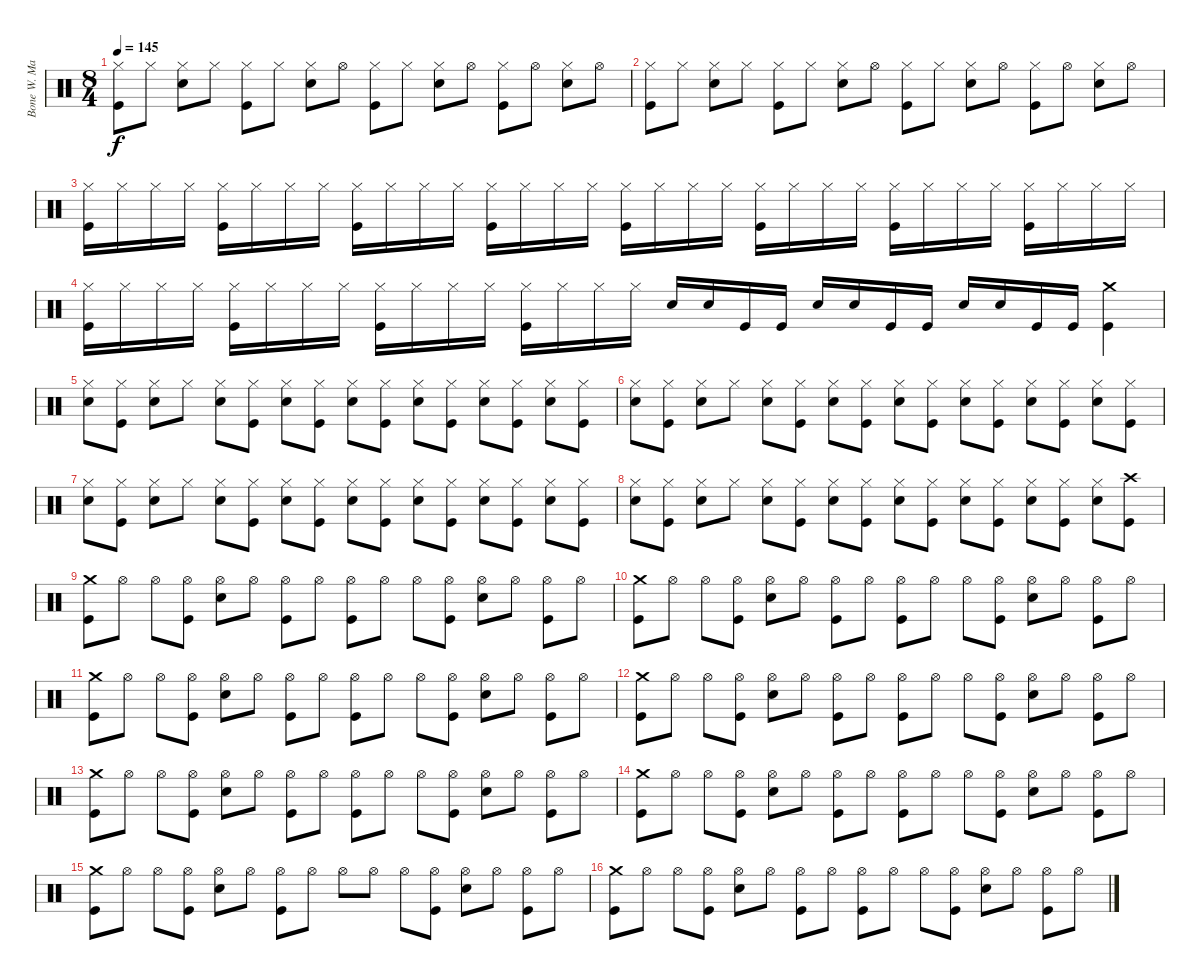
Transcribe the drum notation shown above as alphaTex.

\track ("Bone W. Machine" "Bone W. Ma") {instrument percussion}
\staff {score}
\articulation defaults
\ts (8 4)
\tempo 145
\clef neutral
\ks c
("Kick (hit)" "Hi-Hat (closed)").8{dy f} "Hi-Hat (closed)".8 ("Hi-Hat (closed)" "Electric Snare (hit)").8 "Hi-Hat (closed)".8 ("Kick (hit)" "Hi-Hat (closed)").8 "Hi-Hat (closed)".8 ("Hi-Hat (closed)" "Electric Snare (hit)").8 "Hi-Hat (open)".8 ("Kick (hit)" "Hi-Hat (closed)").8 "Hi-Hat (closed)".8 ("Hi-Hat (closed)" "Electric Snare (hit)").8 "Hi-Hat (open)".8 ("Kick (hit)" "Hi-Hat (closed)").8 "Hi-Hat (open)".8 ("Hi-Hat (closed)" "Electric Snare (hit)").8 "Hi-Hat (open)".8 |
("Kick (hit)" "Hi-Hat (closed)").8 "Hi-Hat (closed)".8 ("Hi-Hat (closed)" "Electric Snare (hit)").8 "Hi-Hat (closed)".8 ("Kick (hit)" "Hi-Hat (closed)").8 "Hi-Hat (closed)".8 ("Hi-Hat (closed)" "Electric Snare (hit)").8 "Hi-Hat (open)".8 ("Kick (hit)" "Hi-Hat (closed)").8 "Hi-Hat (closed)".8 ("Hi-Hat (closed)" "Electric Snare (hit)").8 "Hi-Hat (open)".8 ("Kick (hit)" "Hi-Hat (closed)").8 "Hi-Hat (open)".8 ("Hi-Hat (closed)" "Electric Snare (hit)").8 "Hi-Hat (open)".8 |
("Kick (hit)" "Hi-Hat (closed)").16 "Hi-Hat (closed)".16 "Hi-Hat (closed)".16 "Hi-Hat (closed)".16 ("Kick (hit)" "Hi-Hat (closed)").16 "Hi-Hat (closed)".16 "Hi-Hat (closed)".16 "Hi-Hat (closed)".16 ("Kick (hit)" "Hi-Hat (closed)").16 "Hi-Hat (closed)".16 "Hi-Hat (closed)".16 "Hi-Hat (closed)".16 ("Kick (hit)" "Hi-Hat (closed)").16 "Hi-Hat (closed)".16 "Hi-Hat (closed)".16 "Hi-Hat (closed)".16 ("Kick (hit)" "Hi-Hat (closed)").16 "Hi-Hat (closed)".16 "Hi-Hat (closed)".16 "Hi-Hat (closed)".16 ("Kick (hit)" "Hi-Hat (closed)").16 "Hi-Hat (closed)".16 "Hi-Hat (closed)".16 "Hi-Hat (closed)".16 ("Kick (hit)" "Hi-Hat (closed)").16 "Hi-Hat (closed)".16 "Hi-Hat (closed)".16 "Hi-Hat (closed)".16 ("Kick (hit)" "Hi-Hat (closed)").16 "Hi-Hat (closed)".16 "Hi-Hat (closed)".16 "Hi-Hat (closed)".16 |
("Kick (hit)" "Hi-Hat (closed)").16 "Hi-Hat (closed)".16 "Hi-Hat (closed)".16 "Hi-Hat (closed)".16 ("Kick (hit)" "Hi-Hat (closed)").16 "Hi-Hat (closed)".16 "Hi-Hat (closed)".16 "Hi-Hat (closed)".16 ("Kick (hit)" "Hi-Hat (closed)").16 "Hi-Hat (closed)".16 "Hi-Hat (closed)".16 "Hi-Hat (closed)".16 ("Kick (hit)" "Hi-Hat (closed)").16 "Hi-Hat (closed)".16 "Hi-Hat (closed)".16 "Hi-Hat (closed)".16 "Electric Snare (hit)".16 "Electric Snare (hit)".16 "Kick (hit)".16 "Kick (hit)".16 "Electric Snare (hit)".16 "Electric Snare (hit)".16 "Kick (hit)".16 "Kick (hit)".16 "Electric Snare (hit)".16 "Electric Snare (hit)".16 "Kick (hit)".16 "Kick (hit)".16 ("Kick (hit)" "Crash medium (hit)").4 |
("Hi-Hat (closed)" "Electric Snare (hit)").8 ("Kick (hit)" "Hi-Hat (closed)").8 ("Hi-Hat (closed)" "Electric Snare (hit)").8 "Hi-Hat (closed)".8 ("Hi-Hat (closed)" "Electric Snare (hit)").8 ("Kick (hit)" "Hi-Hat (closed)").8 ("Hi-Hat (closed)" "Electric Snare (hit)").8 ("Kick (hit)" "Hi-Hat (closed)").8 ("Hi-Hat (closed)" "Electric Snare (hit)").8 ("Kick (hit)" "Hi-Hat (closed)").8 ("Hi-Hat (closed)" "Electric Snare (hit)").8 ("Kick (hit)" "Hi-Hat (closed)").8 ("Hi-Hat (closed)" "Electric Snare (hit)").8 ("Kick (hit)" "Hi-Hat (closed)").8 ("Hi-Hat (closed)" "Electric Snare (hit)").8 ("Kick (hit)" "Hi-Hat (closed)").8 |
("Hi-Hat (closed)" "Electric Snare (hit)").8 ("Kick (hit)" "Hi-Hat (closed)").8 ("Hi-Hat (closed)" "Electric Snare (hit)").8 "Hi-Hat (closed)".8 ("Hi-Hat (closed)" "Electric Snare (hit)").8 ("Kick (hit)" "Hi-Hat (closed)").8 ("Hi-Hat (closed)" "Electric Snare (hit)").8 ("Kick (hit)" "Hi-Hat (closed)").8 ("Hi-Hat (closed)" "Electric Snare (hit)").8 ("Kick (hit)" "Hi-Hat (closed)").8 ("Hi-Hat (closed)" "Electric Snare (hit)").8 ("Kick (hit)" "Hi-Hat (closed)").8 ("Hi-Hat (closed)" "Electric Snare (hit)").8 ("Kick (hit)" "Hi-Hat (closed)").8 ("Hi-Hat (closed)" "Electric Snare (hit)").8 ("Kick (hit)" "Hi-Hat (closed)").8 |
("Hi-Hat (closed)" "Electric Snare (hit)").8 ("Kick (hit)" "Hi-Hat (closed)").8 ("Hi-Hat (closed)" "Electric Snare (hit)").8 "Hi-Hat (closed)".8 ("Hi-Hat (closed)" "Electric Snare (hit)").8 ("Kick (hit)" "Hi-Hat (closed)").8 ("Hi-Hat (closed)" "Electric Snare (hit)").8 ("Kick (hit)" "Hi-Hat (closed)").8 ("Hi-Hat (closed)" "Electric Snare (hit)").8 ("Kick (hit)" "Hi-Hat (closed)").8 ("Hi-Hat (closed)" "Electric Snare (hit)").8 ("Kick (hit)" "Hi-Hat (closed)").8 ("Hi-Hat (closed)" "Electric Snare (hit)").8 ("Kick (hit)" "Hi-Hat (closed)").8 ("Hi-Hat (closed)" "Electric Snare (hit)").8 ("Kick (hit)" "Hi-Hat (closed)").8 |
("Hi-Hat (closed)" "Electric Snare (hit)").8 ("Kick (hit)" "Hi-Hat (closed)").8 ("Hi-Hat (closed)" "Electric Snare (hit)").8 "Hi-Hat (closed)".8 ("Hi-Hat (closed)" "Electric Snare (hit)").8 ("Kick (hit)" "Hi-Hat (closed)").8 ("Hi-Hat (closed)" "Electric Snare (hit)").8 ("Kick (hit)" "Hi-Hat (closed)").8 ("Hi-Hat (closed)" "Electric Snare (hit)").8 ("Kick (hit)" "Hi-Hat (closed)").8 ("Hi-Hat (closed)" "Electric Snare (hit)").8 ("Kick (hit)" "Hi-Hat (closed)").8 ("Hi-Hat (closed)" "Electric Snare (hit)").8 ("Kick (hit)" "Hi-Hat (closed)").8 ("Hi-Hat (closed)" "Electric Snare (hit)").8 ("Kick (hit)" "Crash high (hit)").8 |
("Kick (hit)" "Crash medium (hit)").8 "Hi-Hat (open)".8 "Hi-Hat (open)".8 ("Kick (hit)" "Hi-Hat (open)").8 ("Hi-Hat (open)" "Electric Snare (hit)").8 "Hi-Hat (open)".8 ("Kick (hit)" "Hi-Hat (open)").8 "Hi-Hat (open)".8 ("Kick (hit)" "Hi-Hat (open)").8 "Hi-Hat (open)".8 "Hi-Hat (open)".8 ("Kick (hit)" "Hi-Hat (open)").8 ("Hi-Hat (open)" "Electric Snare (hit)").8 "Hi-Hat (open)".8 ("Kick (hit)" "Hi-Hat (open)").8 "Hi-Hat (open)".8 |
("Kick (hit)" "Crash medium (hit)").8 "Hi-Hat (open)".8 "Hi-Hat (open)".8 ("Kick (hit)" "Hi-Hat (open)").8 ("Hi-Hat (open)" "Electric Snare (hit)").8 "Hi-Hat (open)".8 ("Kick (hit)" "Hi-Hat (open)").8 "Hi-Hat (open)".8 ("Kick (hit)" "Hi-Hat (open)").8 "Hi-Hat (open)".8 "Hi-Hat (open)".8 ("Kick (hit)" "Hi-Hat (open)").8 ("Hi-Hat (open)" "Electric Snare (hit)").8 "Hi-Hat (open)".8 ("Kick (hit)" "Hi-Hat (open)").8 "Hi-Hat (open)".8 |
("Kick (hit)" "Crash medium (hit)").8 "Hi-Hat (open)".8 "Hi-Hat (open)".8 ("Kick (hit)" "Hi-Hat (open)").8 ("Hi-Hat (open)" "Electric Snare (hit)").8 "Hi-Hat (open)".8 ("Kick (hit)" "Hi-Hat (open)").8 "Hi-Hat (open)".8 ("Kick (hit)" "Hi-Hat (open)").8 "Hi-Hat (open)".8 "Hi-Hat (open)".8 ("Kick (hit)" "Hi-Hat (open)").8 ("Hi-Hat (open)" "Electric Snare (hit)").8 "Hi-Hat (open)".8 ("Kick (hit)" "Hi-Hat (open)").8 "Hi-Hat (open)".8 |
("Kick (hit)" "Crash medium (hit)").8 "Hi-Hat (open)".8 "Hi-Hat (open)".8 ("Kick (hit)" "Hi-Hat (open)").8 ("Hi-Hat (open)" "Electric Snare (hit)").8 "Hi-Hat (open)".8 ("Kick (hit)" "Hi-Hat (open)").8 "Hi-Hat (open)".8 ("Kick (hit)" "Hi-Hat (open)").8 "Hi-Hat (open)".8 "Hi-Hat (open)".8 ("Kick (hit)" "Hi-Hat (open)").8 ("Hi-Hat (open)" "Electric Snare (hit)").8 "Hi-Hat (open)".8 ("Kick (hit)" "Hi-Hat (open)").8 "Hi-Hat (open)".8 |
("Kick (hit)" "Crash medium (hit)").8 "Hi-Hat (open)".8 "Hi-Hat (open)".8 ("Kick (hit)" "Hi-Hat (open)").8 ("Hi-Hat (open)" "Electric Snare (hit)").8 "Hi-Hat (open)".8 ("Kick (hit)" "Hi-Hat (open)").8 "Hi-Hat (open)".8 ("Kick (hit)" "Hi-Hat (open)").8 "Hi-Hat (open)".8 "Hi-Hat (open)".8 ("Kick (hit)" "Hi-Hat (open)").8 ("Hi-Hat (open)" "Electric Snare (hit)").8 "Hi-Hat (open)".8 ("Kick (hit)" "Hi-Hat (open)").8 "Hi-Hat (open)".8 |
("Kick (hit)" "Crash medium (hit)").8 "Hi-Hat (open)".8 "Hi-Hat (open)".8 ("Kick (hit)" "Hi-Hat (open)").8 ("Hi-Hat (open)" "Electric Snare (hit)").8 "Hi-Hat (open)".8 ("Kick (hit)" "Hi-Hat (open)").8 "Hi-Hat (open)".8 ("Kick (hit)" "Hi-Hat (open)").8 "Hi-Hat (open)".8 "Hi-Hat (open)".8 ("Kick (hit)" "Hi-Hat (open)").8 ("Hi-Hat (open)" "Electric Snare (hit)").8 "Hi-Hat (open)".8 ("Kick (hit)" "Hi-Hat (open)").8 "Hi-Hat (open)".8 |
("Kick (hit)" "Crash medium (hit)").8 "Hi-Hat (open)".8 "Hi-Hat (open)".8 ("Kick (hit)" "Hi-Hat (open)").8 ("Hi-Hat (open)" "Electric Snare (hit)").8 "Hi-Hat (open)".8 ("Kick (hit)" "Hi-Hat (open)").8 "Hi-Hat (open)".8 "Hi-Hat (open)".8 "Hi-Hat (open)".8 "Hi-Hat (open)".8 ("Kick (hit)" "Hi-Hat (open)").8 ("Hi-Hat (open)" "Electric Snare (hit)").8 "Hi-Hat (open)".8 ("Kick (hit)" "Hi-Hat (open)").8 "Hi-Hat (open)".8 |
("Kick (hit)" "Crash medium (hit)").8 "Hi-Hat (open)".8 "Hi-Hat (open)".8 ("Kick (hit)" "Hi-Hat (open)").8 ("Hi-Hat (open)" "Electric Snare (hit)").8 "Hi-Hat (open)".8 ("Kick (hit)" "Hi-Hat (open)").8 "Hi-Hat (open)".8 ("Kick (hit)" "Hi-Hat (open)").8 "Hi-Hat (open)".8 "Hi-Hat (open)".8 ("Kick (hit)" "Hi-Hat (open)").8 ("Hi-Hat (open)" "Electric Snare (hit)").8 "Hi-Hat (open)".8 ("Kick (hit)" "Hi-Hat (open)").8 "Hi-Hat (open)".8
